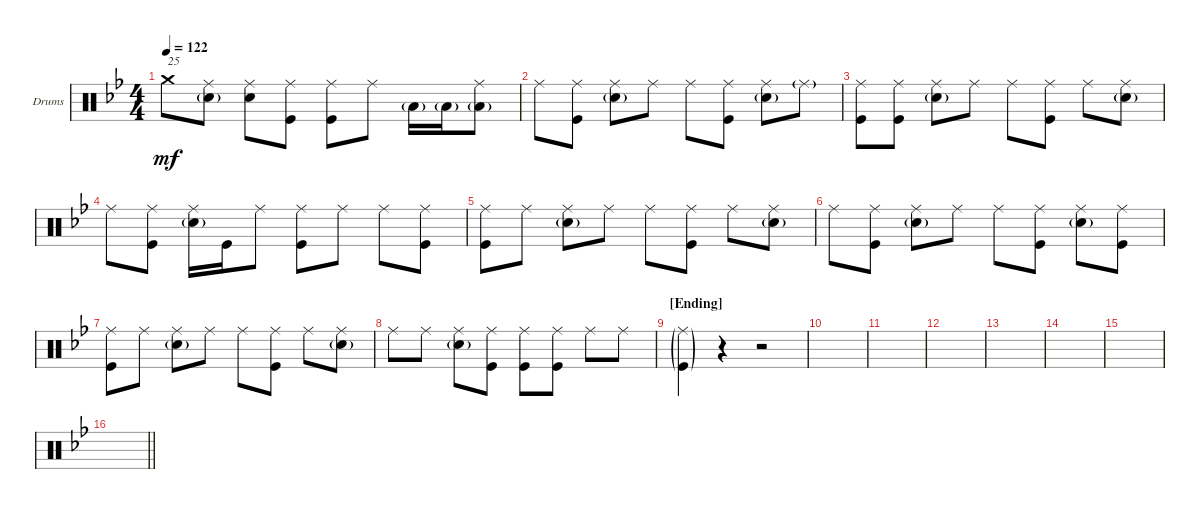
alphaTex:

\defaultSystemsLayout 4
\bracketExtendMode groupsimilarinstruments
\firstSystemTrackNameOrientation horizontal
\otherSystemsTrackNameOrientation horizontal
\track ("Drumkit" "Drums") {instrument percussion}
\staff {score}
\articulation defaults
\ts (4 4)
\tempo 122
\clef neutral
\ks bb "Crash medium (hit)"{t}.8{txt "25" dy mf}
("Ride (middle)" "Snare (hit) 2"{g}).8 ("Ride (middle)" "Snare (hit) 2").8 ("Ride (middle)" "Kick (hit)").8 ("Ride (middle)" "Kick (hit)").8 "Ride (middle)".8 "Low Tom (hit)"{g}.16 "Low Tom (hit)"{g}.16 ("Ride (middle)" "Low Tom (hit)"{g}).8 |
"Ride (middle)".8 ("Ride (middle)" "Kick (hit)").8 ("Ride (middle)" "Snare (hit) 2"{g}).8 "Ride (middle)".8 "Ride (middle)".8 ("Kick (hit)" "Ride (middle)").8 ("Ride (middle)" "Snare (hit) 2"{g}).8 "Ride (middle)"{g}.8 |
("Ride (middle)" "Kick (hit)").8 ("Kick (hit)" "Ride (middle)").8 ("Ride (middle)" "Snare (hit) 2"{g}).8 "Ride (middle)".8 "Ride (middle)".8 ("Kick (hit)" "Ride (middle)").8 "Ride (middle)".8 ("Ride (middle)" "Snare (hit) 2"{g}).8 |
"Ride (middle)".8 ("Ride (middle)" "Kick (hit)").8 ("Ride (middle)" "Snare (hit) 2"{g}).16 "Kick (hit)".16 "Ride (middle)".8 ("Ride (middle)" "Kick (hit)").8 "Ride (middle)".8 "Ride (middle)".8 ("Ride (middle)" "Kick (hit)").8 |
("Kick (hit)" "Ride (middle)").8 "Ride (middle)".8 ("Ride (middle)" "Snare (hit) 2"{g}).8 "Ride (middle)".8 "Ride (middle)".8 ("Kick (hit)" "Ride (middle)").8 "Ride (middle)".8 ("Ride (middle)" "Snare (hit) 2"{g}).8 |
"Ride (middle)".8 ("Ride (middle)" "Kick (hit)").8 ("Ride (middle)" "Snare (hit) 2"{g}).8 "Ride (middle)".8 "Ride (middle)".8 ("Kick (hit)" "Ride (middle)").8 ("Ride (middle)" "Snare (hit) 2"{g}).8 ("Ride (middle)" "Kick (hit)").8 |
("Kick (hit)" "Ride (middle)").8 "Ride (middle)".8 ("Ride (middle)" "Snare (hit) 2"{g}).8 "Ride (middle)".8 "Ride (middle)".8 ("Kick (hit)" "Ride (middle)").8 "Ride (middle)".8 ("Ride (middle)" "Snare (hit) 2"{g}).8 |
"Ride (middle)".8 "Ride (middle)".8 ("Ride (middle)" "Snare (hit) 2"{g}).8 ("Ride (middle)" "Kick (hit)").8 ("Ride (middle)" "Kick (hit)").8 ("Kick (hit)" "Ride (middle)").8 "Ride (middle)".8 "Ride (middle)".8 |
\section ("" "[Ending]")
("Kick (hit)"{g} "Ride (middle)"{g}).4 r.4 r.2 |
|
|
|
|
|
|
\barLineRight lightlight
